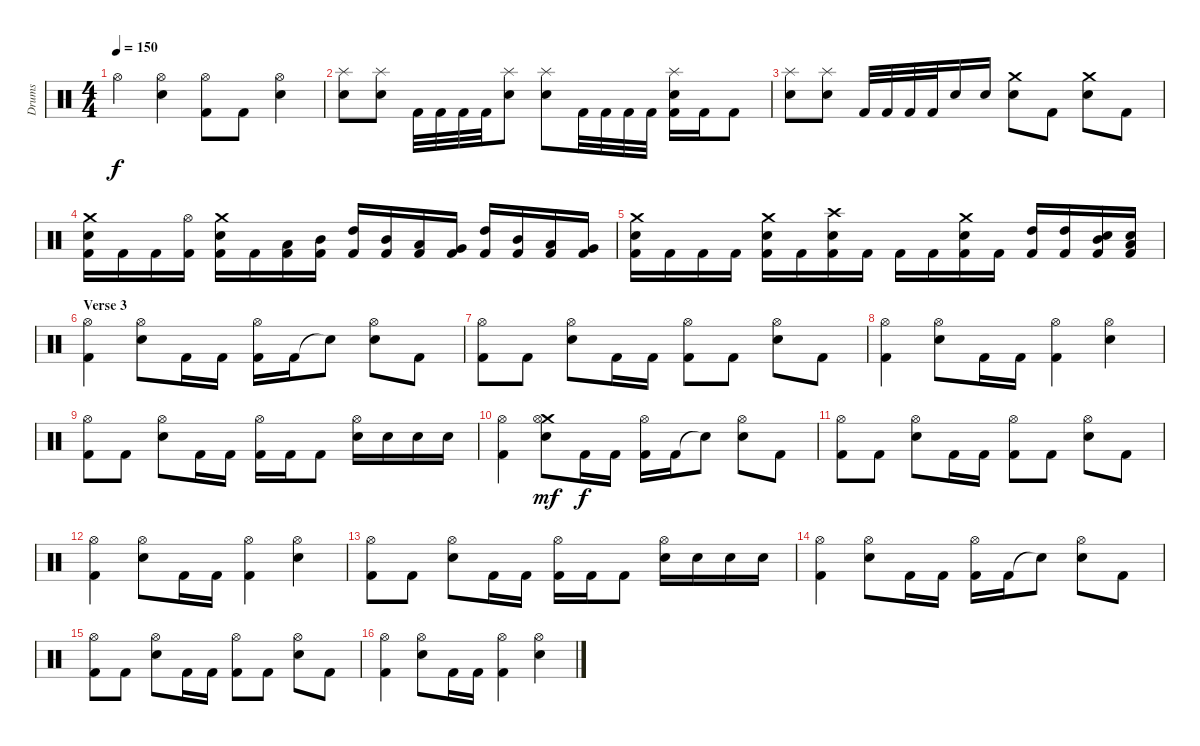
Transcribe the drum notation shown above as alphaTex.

\track ("Drums" "Drums") {instrument percussion}
\staff {score}
\articulation defaults
\ts (4 4)
\tempo 150
\clef neutral
\ks c "Hi-Hat (open)".4{dy f}
("Hi-Hat (open)" "Electric Snare (hit)").4 ("Hi-Hat (open)" "Kick (hit) 2").8 "Kick (hit) 2".8 ("Hi-Hat (open)" "Electric Snare (hit)").4 |
("Splash (hit)" "Electric Snare (hit)").8 ("Splash (hit)" "Electric Snare (hit)").8 "Kick (hit) 2".32 "Kick (hit) 2".32 "Kick (hit) 2".32 "Kick (hit) 2".32 ("Splash (hit)" "Electric Snare (hit)").8 ("Splash (hit)" "Electric Snare (hit)").8 "Kick (hit) 2".32 "Kick (hit) 2".32 "Kick (hit) 2".32 "Kick (hit) 2".32 ("Splash (hit)" "Electric Snare (hit)" "Kick (hit) 2").16 "Kick (hit) 2".16 "Kick (hit) 2".8 |
("Splash (hit)" "Electric Snare (hit)").8 ("Splash (hit)" "Electric Snare (hit)").8 "Kick (hit) 2".32 "Kick (hit) 2".32 "Kick (hit) 2".32 "Kick (hit) 2".32 "Electric Snare (hit)".16 "Electric Snare (hit)".16 ("Crash medium (hit)" "Electric Snare (hit)").8 "Kick (hit) 2".8 ("Crash medium (hit)" "Electric Snare (hit)").8 "Kick (hit) 2".8 |
("Crash medium (hit)" "Electric Snare (hit)" "Kick (hit) 2").16 "Kick (hit) 2".16 "Kick (hit) 2".16 ("Hi-Hat (open)" "Kick (hit) 2").16 ("Crash medium (hit)" "Electric Snare (hit)" "Kick (hit) 2").16 "Kick (hit) 2".16 ("Low Tom (hit)" "Kick (hit) 2").16 ("Mid Tom (hit)" "Kick (hit) 2").16 ("High Tom (hit)" "Kick (hit) 2").16 ("Mid Tom (hit)" "Kick (hit) 2").16 ("Low Tom (hit)" "Kick (hit) 2").16 ("Very Low Tom (hit)" "Kick (hit) 2").16 ("High Tom (hit)" "Kick (hit) 2").16 ("Mid Tom (hit)" "Kick (hit) 2").16 ("Low Tom (hit)" "Kick (hit) 2").16 ("Very Low Tom (hit)" "Kick (hit) 2").16 |
("Crash medium (hit)" "Electric Snare (hit)" "Kick (hit) 2").16 "Kick (hit) 2".16 "Kick (hit) 2".16 "Kick (hit) 2".16 ("Crash medium (hit)" "Electric Snare (hit)" "Kick (hit) 2").16 "Kick (hit) 2".16 ("Crash high (hit)" "Electric Snare (hit)" "Kick (hit) 2").16 "Kick (hit) 2".16 "Kick (hit) 2".16 "Kick (hit) 2".16 ("Crash medium (hit)" "Electric Snare (hit)" "Kick (hit) 2").16 "Kick (hit) 2".16 ("High Tom (hit)" "Kick (hit) 2").16 ("High Tom (hit)" "Kick (hit) 2").16 ("Mid Tom (hit)" "Electric Snare (hit)" "Kick (hit) 2").16 ("Low Tom (hit)" "Electric Snare (hit)" "Kick (hit) 2").16 |
\section ("" "Verse 3")
("Hi-Hat (open)" "Kick (hit) 2").4 ("Hi-Hat (open)" "Electric Snare (hit)").8 "Kick (hit) 2".16 "Kick (hit) 2".16 ("Hi-Hat (open)" "Kick (hit) 2").16 "Kick (hit) 2".16 "Snare (hit)"{t}.8 ("Hi-Hat (open)" "Electric Snare (hit)").8 "Kick (hit) 2".8 |
("Hi-Hat (open)" "Kick (hit) 2").8 "Kick (hit) 2".8 ("Hi-Hat (open)" "Electric Snare (hit)").8 "Kick (hit) 2".16 "Kick (hit) 2".16 ("Hi-Hat (open)" "Kick (hit) 2").8 "Kick (hit) 2".8 ("Hi-Hat (open)" "Electric Snare (hit)").8 "Kick (hit) 2".8 |
("Hi-Hat (open)" "Kick (hit) 2").4 ("Hi-Hat (open)" "Electric Snare (hit)").8 "Kick (hit) 2".16 "Kick (hit) 2".16 ("Hi-Hat (open)" "Kick (hit) 2").4 ("Hi-Hat (open)" "Electric Snare (hit)").4 |
("Hi-Hat (open)" "Kick (hit) 2").8 "Kick (hit) 2".8 ("Hi-Hat (open)" "Electric Snare (hit)").8 "Kick (hit) 2".16 "Kick (hit) 2".16 ("Hi-Hat (open)" "Kick (hit) 2").16 "Kick (hit) 2".16 "Kick (hit) 2".8 ("Hi-Hat (open)" "Electric Snare (hit)").16 "Electric Snare (hit)".16 "Electric Snare (hit)".16 "Electric Snare (hit)".16 |
("Hi-Hat (open)" "Kick (hit) 2").4 ("Crash medium (hit)" "Hi-Hat (open)" "Electric Snare (hit)").8{dy mf} "Kick (hit) 2".16{dy f} "Kick (hit) 2".16 ("Hi-Hat (open)" "Kick (hit) 2").16 "Kick (hit) 2".16 "Snare (hit)"{t}.8 ("Hi-Hat (open)" "Electric Snare (hit)").8 "Kick (hit) 2".8 |
("Hi-Hat (open)" "Kick (hit) 2").8 "Kick (hit) 2".8 ("Hi-Hat (open)" "Electric Snare (hit)").8 "Kick (hit) 2".16 "Kick (hit) 2".16 ("Hi-Hat (open)" "Kick (hit) 2").8 "Kick (hit) 2".8 ("Hi-Hat (open)" "Electric Snare (hit)").8 "Kick (hit) 2".8 |
("Hi-Hat (open)" "Kick (hit) 2").4 ("Hi-Hat (open)" "Electric Snare (hit)").8 "Kick (hit) 2".16 "Kick (hit) 2".16 ("Hi-Hat (open)" "Kick (hit) 2").4 ("Hi-Hat (open)" "Electric Snare (hit)").4 |
("Hi-Hat (open)" "Kick (hit) 2").8 "Kick (hit) 2".8 ("Hi-Hat (open)" "Electric Snare (hit)").8 "Kick (hit) 2".16 "Kick (hit) 2".16 ("Hi-Hat (open)" "Kick (hit) 2").16 "Kick (hit) 2".16 "Kick (hit) 2".8 ("Hi-Hat (open)" "Electric Snare (hit)").16 "Electric Snare (hit)".16 "Electric Snare (hit)".16 "Electric Snare (hit)".16 |
("Hi-Hat (open)" "Kick (hit) 2").4 ("Hi-Hat (open)" "Electric Snare (hit)").8 "Kick (hit) 2".16 "Kick (hit) 2".16 ("Hi-Hat (open)" "Kick (hit) 2").16 "Kick (hit) 2".16 "Snare (hit)"{t}.8 ("Hi-Hat (open)" "Electric Snare (hit)").8 "Kick (hit) 2".8 |
("Hi-Hat (open)" "Kick (hit) 2").8 "Kick (hit) 2".8 ("Hi-Hat (open)" "Electric Snare (hit)").8 "Kick (hit) 2".16 "Kick (hit) 2".16 ("Hi-Hat (open)" "Kick (hit) 2").8 "Kick (hit) 2".8 ("Hi-Hat (open)" "Electric Snare (hit)").8 "Kick (hit) 2".8 |
("Hi-Hat (open)" "Kick (hit) 2").4 ("Hi-Hat (open)" "Electric Snare (hit)").8 "Kick (hit) 2".16 "Kick (hit) 2".16 ("Hi-Hat (open)" "Kick (hit) 2").4 ("Hi-Hat (open)" "Electric Snare (hit)").4
